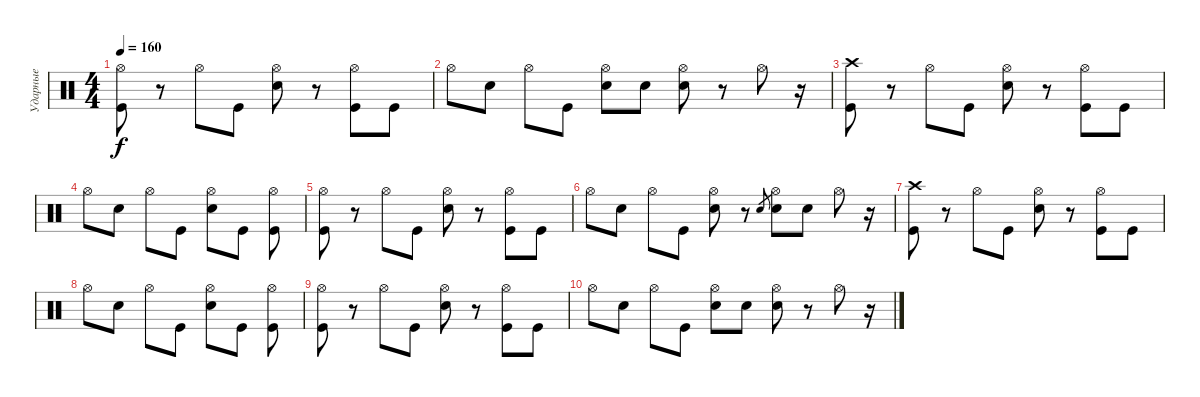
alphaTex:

\track ("Ударные" "Ударные") {instrument percussion}
\staff {score}
\articulation defaults
\ts (4 4)
\tempo 160
\clef neutral
\ks c
("Hi-Hat (open)" "Kick (hit)").8{dy f} r.8 "Hi-Hat (open)".8 "Kick (hit)".8 ("Hi-Hat (open)" "Electric Snare (hit)").8 r.8 ("Hi-Hat (open)" "Kick (hit)").8 "Kick (hit)".8 |
"Hi-Hat (open)".8 "Electric Snare (hit)".8 "Hi-Hat (open)".8 "Kick (hit)".8 ("Hi-Hat (open)" "Electric Snare (hit)").8 "Electric Snare (hit)".8 ("Hi-Hat (open)" "Electric Snare (hit)").8 r.8 "Hi-Hat (open)".8 r.16 |
("Crash high (hit)" "Kick (hit)").8 r.8 "Hi-Hat (open)".8 "Kick (hit)".8 ("Hi-Hat (open)" "Electric Snare (hit)").8 r.8 ("Hi-Hat (open)" "Kick (hit)").8 "Kick (hit)".8 |
"Hi-Hat (open)".8 "Electric Snare (hit)".8 "Hi-Hat (open)".8 "Kick (hit)".8 ("Hi-Hat (open)" "Electric Snare (hit)").8 "Kick (hit)".8 ("Hi-Hat (open)" "Kick (hit)").8 |
("Hi-Hat (open)" "Kick (hit)").8 r.8 "Hi-Hat (open)".8 "Kick (hit)".8 ("Hi-Hat (open)" "Electric Snare (hit)").8 r.8 ("Hi-Hat (open)" "Kick (hit)").8 "Kick (hit)".8 |
"Hi-Hat (open)".8 "Electric Snare (hit)".8 "Hi-Hat (open)".8 "Kick (hit)".8 ("Hi-Hat (open)" "Electric Snare (hit)").8 r.8 "Electric Snare (hit)".8{gr} ("Hi-Hat (open)" "Electric Snare (hit)").8 "Electric Snare (hit)".8 "Hi-Hat (open)".8 r.16 |
("Crash high (hit)" "Kick (hit)").8 r.8 "Hi-Hat (open)".8 "Kick (hit)".8 ("Hi-Hat (open)" "Electric Snare (hit)").8 r.8 ("Hi-Hat (open)" "Kick (hit)").8 "Kick (hit)".8 |
"Hi-Hat (open)".8 "Electric Snare (hit)".8 "Hi-Hat (open)".8 "Kick (hit)".8 ("Hi-Hat (open)" "Electric Snare (hit)").8 "Kick (hit)".8 ("Hi-Hat (open)" "Kick (hit)").8 |
("Hi-Hat (open)" "Kick (hit)").8 r.8 "Hi-Hat (open)".8 "Kick (hit)".8 ("Hi-Hat (open)" "Electric Snare (hit)").8 r.8 ("Hi-Hat (open)" "Kick (hit)").8 "Kick (hit)".8 |
"Hi-Hat (open)".8 "Electric Snare (hit)".8 "Hi-Hat (open)".8 "Kick (hit)".8 ("Hi-Hat (open)" "Electric Snare (hit)").8 "Electric Snare (hit)".8 ("Hi-Hat (open)" "Electric Snare (hit)").8 r.8 "Hi-Hat (open)".8 r.16
